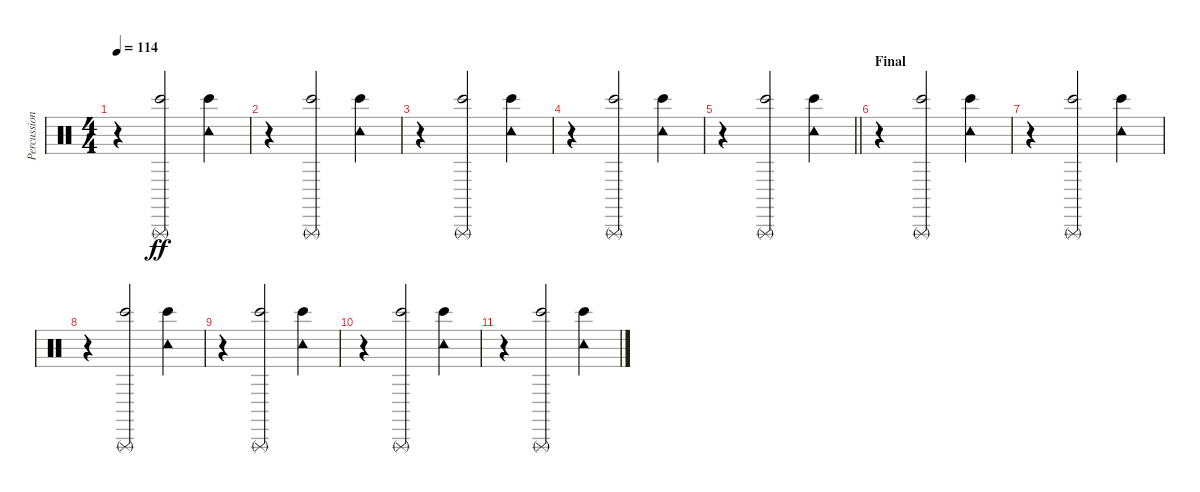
\track ("Percussion" "Percussion") {instrument percussion}
\staff {score}
\articulation defaults
\ts (4 4)
\tempo 114
\clef neutral
\ks c
r.4{dy ff} ("Triangle (rnute)" "Bongo High (hit)").2 ("Tambourine (hit)" "Bongo High (hit)").4 |
r.4 ("Triangle (rnute)" "Bongo High (hit)").2 ("Tambourine (hit)" "Bongo High (hit)").4 |
r.4 ("Triangle (rnute)" "Bongo High (hit)").2 ("Tambourine (hit)" "Bongo High (hit)").4 |
r.4 ("Triangle (rnute)" "Bongo High (hit)").2 ("Tambourine (hit)" "Bongo High (hit)").4 |
\barLineRight lightlight
r.4 ("Triangle (rnute)" "Bongo High (hit)").2 ("Tambourine (hit)" "Bongo High (hit)").4 |
\section ("" "Final")
r.4 ("Triangle (rnute)" "Bongo High (hit)").2 ("Tambourine (hit)" "Bongo High (hit)").4 |
r.4 ("Triangle (rnute)" "Bongo High (hit)").2 ("Tambourine (hit)" "Bongo High (hit)").4 |
r.4 ("Triangle (rnute)" "Bongo High (hit)").2 ("Tambourine (hit)" "Bongo High (hit)").4 |
r.4 ("Triangle (rnute)" "Bongo High (hit)").2 ("Tambourine (hit)" "Bongo High (hit)").4 |
r.4 ("Triangle (rnute)" "Bongo High (hit)").2 ("Tambourine (hit)" "Bongo High (hit)").4 |
r.4 ("Triangle (rnute)" "Bongo High (hit)").2 ("Tambourine (hit)" "Bongo High (hit)").4
